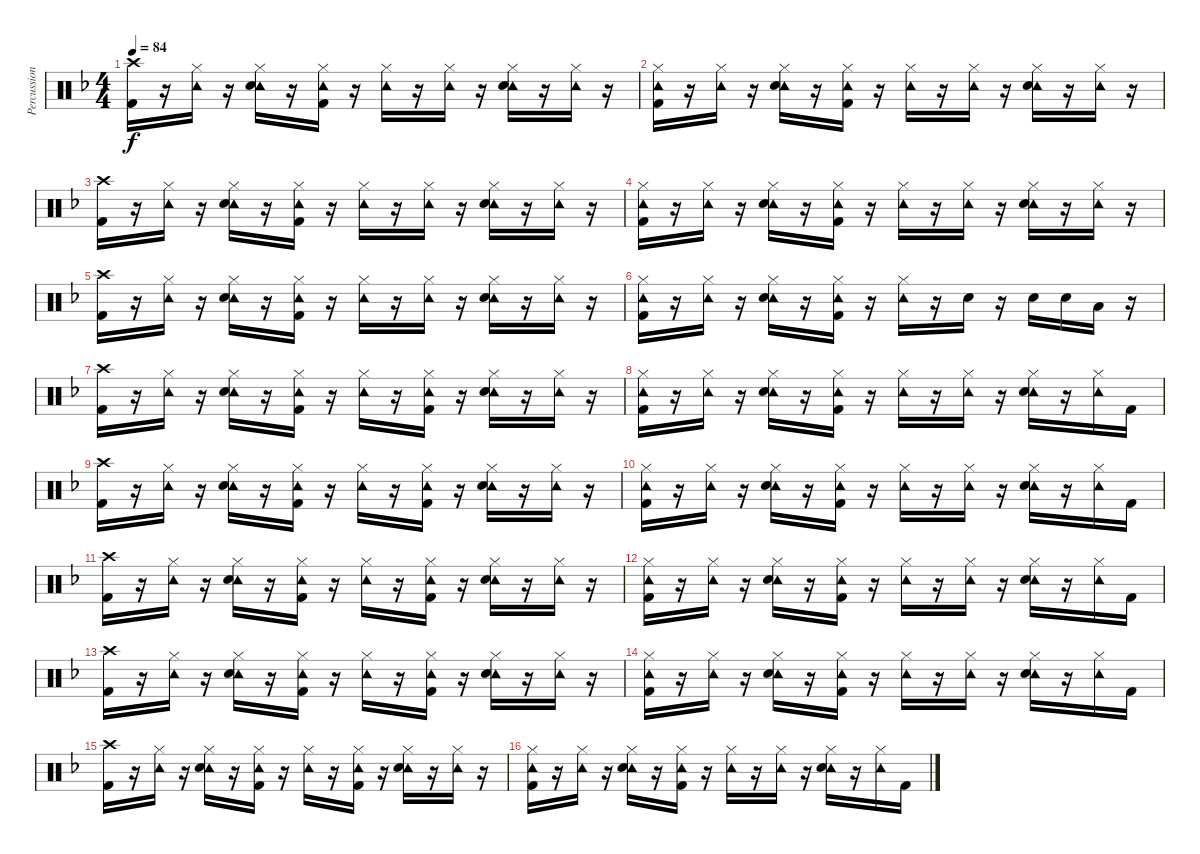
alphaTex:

\track ("Percussion" "Percussion") {instrument percussion}
\staff {score}
\articulation defaults
\ts (4 4)
\tempo 84
\clef neutral
\ks f
("Crash high (hit)" "Kick (hit) 2").16{dy f} r.16 ("Hi-Hat (closed)" "Tambourine (hit)").16 r.16 ("Hi-Hat (closed)" "Tambourine (hit)" "Snare (hit) 2").16 r.16 ("Hi-Hat (closed)" "Tambourine (hit)" "Kick (hit) 2").16 r.16 ("Hi-Hat (closed)" "Tambourine (hit)").16 r.16 ("Hi-Hat (closed)" "Tambourine (hit)").16 r.16 ("Hi-Hat (closed)" "Tambourine (hit)" "Snare (hit) 2").16 r.16 ("Hi-Hat (closed)" "Tambourine (hit)").16 r.16 |
("Hi-Hat (closed)" "Tambourine (hit)" "Kick (hit) 2").16 r.16 ("Hi-Hat (closed)" "Tambourine (hit)").16 r.16 ("Hi-Hat (closed)" "Tambourine (hit)" "Snare (hit) 2").16 r.16 ("Hi-Hat (closed)" "Tambourine (hit)" "Kick (hit) 2").16 r.16 ("Hi-Hat (closed)" "Tambourine (hit)").16 r.16 ("Hi-Hat (closed)" "Tambourine (hit)").16 r.16 ("Hi-Hat (closed)" "Tambourine (hit)" "Snare (hit) 2").16 r.16 ("Hi-Hat (closed)" "Tambourine (hit)").16 r.16 |
("Crash high (hit)" "Kick (hit) 2").16 r.16 ("Hi-Hat (closed)" "Tambourine (hit)").16 r.16 ("Hi-Hat (closed)" "Tambourine (hit)" "Snare (hit) 2").16 r.16 ("Hi-Hat (closed)" "Tambourine (hit)" "Kick (hit) 2").16 r.16 ("Hi-Hat (closed)" "Tambourine (hit)").16 r.16 ("Hi-Hat (closed)" "Tambourine (hit)").16 r.16 ("Hi-Hat (closed)" "Tambourine (hit)" "Snare (hit) 2").16 r.16 ("Hi-Hat (closed)" "Tambourine (hit)").16 r.16 |
("Hi-Hat (closed)" "Tambourine (hit)" "Kick (hit) 2").16 r.16 ("Hi-Hat (closed)" "Tambourine (hit)").16 r.16 ("Hi-Hat (closed)" "Tambourine (hit)" "Snare (hit) 2").16 r.16 ("Hi-Hat (closed)" "Tambourine (hit)" "Kick (hit) 2").16 r.16 ("Hi-Hat (closed)" "Tambourine (hit)").16 r.16 ("Hi-Hat (closed)" "Tambourine (hit)").16 r.16 ("Hi-Hat (closed)" "Tambourine (hit)" "Snare (hit) 2").16 r.16 ("Hi-Hat (closed)" "Tambourine (hit)").16 r.16 |
("Crash high (hit)" "Kick (hit) 2").16 r.16 ("Hi-Hat (closed)" "Tambourine (hit)").16 r.16 ("Hi-Hat (closed)" "Tambourine (hit)" "Snare (hit) 2").16 r.16 ("Hi-Hat (closed)" "Tambourine (hit)" "Kick (hit) 2").16 r.16 ("Hi-Hat (closed)" "Tambourine (hit)").16 r.16 ("Hi-Hat (closed)" "Tambourine (hit)").16 r.16 ("Hi-Hat (closed)" "Tambourine (hit)" "Snare (hit) 2").16 r.16 ("Hi-Hat (closed)" "Tambourine (hit)").16 r.16 |
("Hi-Hat (closed)" "Tambourine (hit)" "Kick (hit) 2").16 r.16 ("Hi-Hat (closed)" "Tambourine (hit)").16 r.16 ("Hi-Hat (closed)" "Tambourine (hit)" "Snare (hit) 2").16 r.16 ("Hi-Hat (closed)" "Tambourine (hit)" "Kick (hit) 2").16 r.16 ("Hi-Hat (closed)" "Tambourine (hit)").16 r.16 "Snare (hit) 2".16 r.16 "Snare (hit) 2".16 "Snare (hit) 2".16 "Low Tom (hit)".16 r.16 |
("Crash high (hit)" "Kick (hit) 2").16 r.16 ("Hi-Hat (closed)" "Tambourine (hit)").16 r.16 ("Hi-Hat (closed)" "Tambourine (hit)" "Snare (hit) 2").16 r.16 ("Hi-Hat (closed)" "Tambourine (hit)" "Kick (hit) 2").16 r.16 ("Hi-Hat (closed)" "Tambourine (hit)").16 r.16 ("Hi-Hat (closed)" "Tambourine (hit)" "Kick (hit) 2").16 r.16 ("Hi-Hat (closed)" "Tambourine (hit)" "Snare (hit) 2").16 r.16 ("Hi-Hat (closed)" "Tambourine (hit)").16 r.16 |
("Hi-Hat (closed)" "Tambourine (hit)" "Kick (hit) 2").16 r.16 ("Hi-Hat (closed)" "Tambourine (hit)").16 r.16 ("Hi-Hat (closed)" "Tambourine (hit)" "Snare (hit) 2").16 r.16 ("Hi-Hat (closed)" "Tambourine (hit)" "Kick (hit) 2").16 r.16 ("Hi-Hat (closed)" "Tambourine (hit)").16 r.16 ("Hi-Hat (closed)" "Tambourine (hit)").16 r.16 ("Hi-Hat (closed)" "Tambourine (hit)" "Snare (hit) 2").16 r.16 ("Hi-Hat (closed)" "Tambourine (hit)").16 "Kick (hit) 2".16 |
("Crash high (hit)" "Kick (hit) 2").16{volume 3} r.16 ("Hi-Hat (closed)" "Tambourine (hit)").16 r.16 ("Hi-Hat (closed)" "Tambourine (hit)" "Snare (hit) 2").16 r.16 ("Hi-Hat (closed)" "Tambourine (hit)" "Kick (hit) 2").16 r.16 ("Hi-Hat (closed)" "Tambourine (hit)").16 r.16 ("Hi-Hat (closed)" "Tambourine (hit)" "Kick (hit) 2").16 r.16 ("Hi-Hat (closed)" "Tambourine (hit)" "Snare (hit) 2").16 r.16 ("Hi-Hat (closed)" "Tambourine (hit)").16 r.16 |
("Hi-Hat (closed)" "Tambourine (hit)" "Kick (hit) 2").16 r.16 ("Hi-Hat (closed)" "Tambourine (hit)").16 r.16 ("Hi-Hat (closed)" "Tambourine (hit)" "Snare (hit) 2").16 r.16 ("Hi-Hat (closed)" "Tambourine (hit)" "Kick (hit) 2").16 r.16 ("Hi-Hat (closed)" "Tambourine (hit)").16 r.16 ("Hi-Hat (closed)" "Tambourine (hit)").16 r.16 ("Hi-Hat (closed)" "Tambourine (hit)" "Snare (hit) 2").16 r.16 ("Hi-Hat (closed)" "Tambourine (hit)").16 "Kick (hit) 2".16 |
("Crash high (hit)" "Kick (hit) 2").16{volume 2} r.16 ("Hi-Hat (closed)" "Tambourine (hit)").16 r.16 ("Hi-Hat (closed)" "Tambourine (hit)" "Snare (hit) 2").16 r.16 ("Hi-Hat (closed)" "Tambourine (hit)" "Kick (hit) 2").16 r.16 ("Hi-Hat (closed)" "Tambourine (hit)").16 r.16 ("Hi-Hat (closed)" "Tambourine (hit)" "Kick (hit) 2").16 r.16 ("Hi-Hat (closed)" "Tambourine (hit)" "Snare (hit) 2").16 r.16 ("Hi-Hat (closed)" "Tambourine (hit)").16 r.16 |
("Hi-Hat (closed)" "Tambourine (hit)" "Kick (hit) 2").16{volume 2} r.16 ("Hi-Hat (closed)" "Tambourine (hit)").16 r.16 ("Hi-Hat (closed)" "Tambourine (hit)" "Snare (hit) 2").16 r.16 ("Hi-Hat (closed)" "Tambourine (hit)" "Kick (hit) 2").16 r.16 ("Hi-Hat (closed)" "Tambourine (hit)").16 r.16 ("Hi-Hat (closed)" "Tambourine (hit)").16 r.16 ("Hi-Hat (closed)" "Tambourine (hit)" "Snare (hit) 2").16 r.16 ("Hi-Hat (closed)" "Tambourine (hit)").16 "Kick (hit) 2".16 |
("Crash high (hit)" "Kick (hit) 2").16{volume 2} r.16 ("Hi-Hat (closed)" "Tambourine (hit)").16 r.16 ("Hi-Hat (closed)" "Tambourine (hit)" "Snare (hit) 2").16 r.16 ("Hi-Hat (closed)" "Tambourine (hit)" "Kick (hit) 2").16 r.16 ("Hi-Hat (closed)" "Tambourine (hit)").16 r.16 ("Hi-Hat (closed)" "Tambourine (hit)" "Kick (hit) 2").16 r.16 ("Hi-Hat (closed)" "Tambourine (hit)" "Snare (hit) 2").16 r.16 ("Hi-Hat (closed)" "Tambourine (hit)").16 r.16 |
("Hi-Hat (closed)" "Tambourine (hit)" "Kick (hit) 2").16{volume 1} r.16 ("Hi-Hat (closed)" "Tambourine (hit)").16 r.16 ("Hi-Hat (closed)" "Tambourine (hit)" "Snare (hit) 2").16 r.16 ("Hi-Hat (closed)" "Tambourine (hit)" "Kick (hit) 2").16 r.16 ("Hi-Hat (closed)" "Tambourine (hit)").16 r.16 ("Hi-Hat (closed)" "Tambourine (hit)").16 r.16 ("Hi-Hat (closed)" "Tambourine (hit)" "Snare (hit) 2").16 r.16 ("Hi-Hat (closed)" "Tambourine (hit)").16 "Kick (hit) 2".16 |
("Crash high (hit)" "Kick (hit) 2").16{volume 1} r.16 ("Hi-Hat (closed)" "Tambourine (hit)").16 r.16 ("Hi-Hat (closed)" "Tambourine (hit)" "Snare (hit) 2").16 r.16 ("Hi-Hat (closed)" "Tambourine (hit)" "Kick (hit) 2").16 r.16 ("Hi-Hat (closed)" "Tambourine (hit)").16 r.16 ("Hi-Hat (closed)" "Tambourine (hit)" "Kick (hit) 2").16 r.16 ("Hi-Hat (closed)" "Tambourine (hit)" "Snare (hit) 2").16 r.16 ("Hi-Hat (closed)" "Tambourine (hit)").16 r.16 |
("Hi-Hat (closed)" "Tambourine (hit)" "Kick (hit) 2").16{volume 1} r.16 ("Hi-Hat (closed)" "Tambourine (hit)").16 r.16 ("Hi-Hat (closed)" "Tambourine (hit)" "Snare (hit) 2").16 r.16 ("Hi-Hat (closed)" "Tambourine (hit)" "Kick (hit) 2").16 r.16 ("Hi-Hat (closed)" "Tambourine (hit)").16 r.16 ("Hi-Hat (closed)" "Tambourine (hit)").16 r.16 ("Hi-Hat (closed)" "Tambourine (hit)" "Snare (hit) 2").16 r.16 ("Hi-Hat (closed)" "Tambourine (hit)").16 "Kick (hit) 2".16
